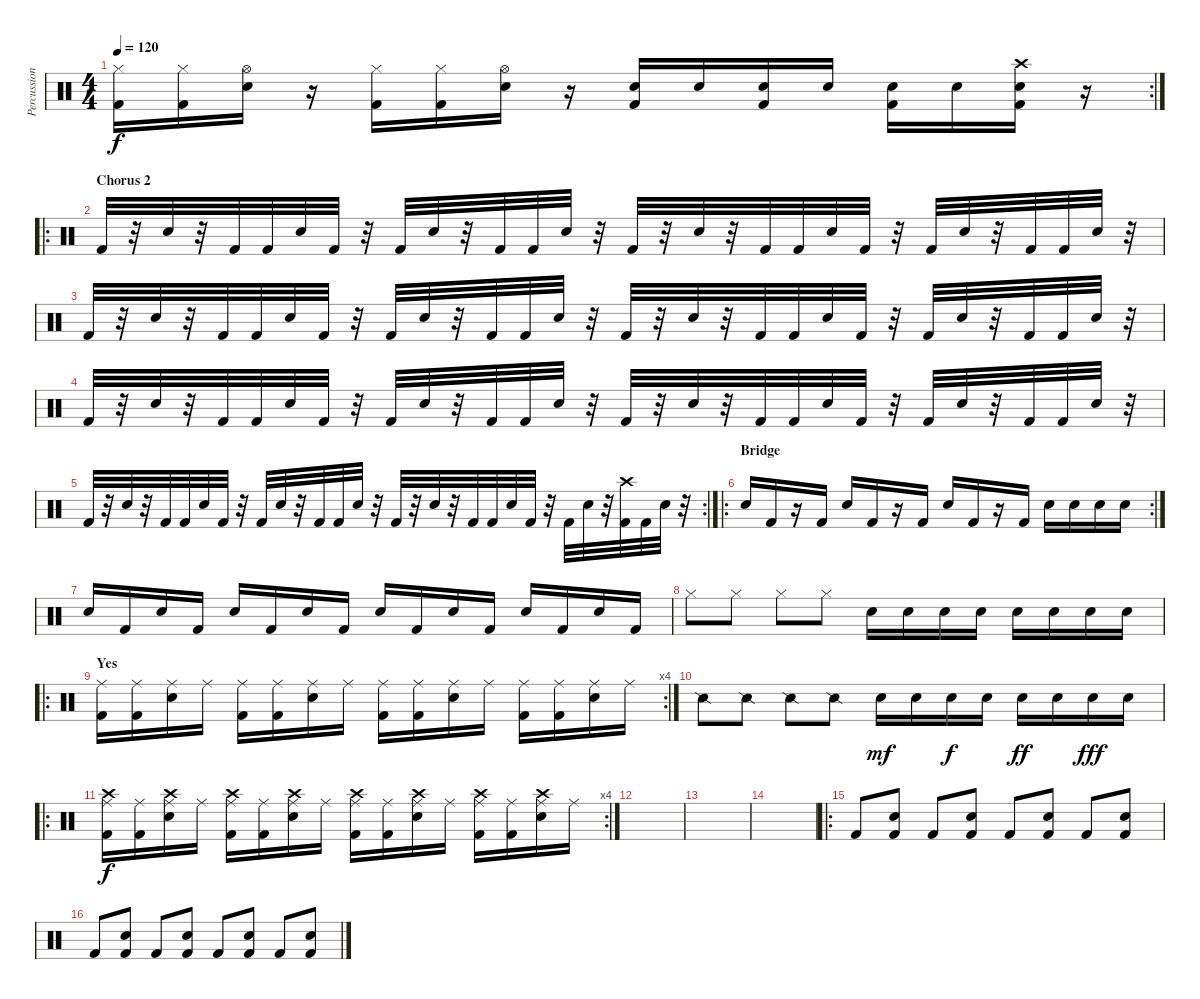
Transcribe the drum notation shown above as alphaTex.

\track ("Percussion" "Percussion") {instrument percussion}
\staff {score}
\articulation defaults
\rc 2
\ts (4 4)
\tempo 120
\clef neutral
\ks c
("Hi-Hat (closed)" "Kick (hit) 2").16{dy f} ("Hi-Hat (closed)" "Kick (hit) 2").16 ("Hi-Hat (open)" "Electric Snare (hit)").16 r.16 ("Hi-Hat (closed)" "Kick (hit) 2").16 ("Hi-Hat (closed)" "Kick (hit) 2").16 ("Hi-Hat (open)" "Electric Snare (hit)").16 r.16 ("Electric Snare (hit)" "Kick (hit) 2").16 "Electric Snare (hit)".16 ("Electric Snare (hit)" "Kick (hit) 2").16 "Electric Snare (hit)".16 ("Electric Snare (hit)" "Kick (hit) 2").16 "Electric Snare (hit)".16 ("Crash high (hit)" "Electric Snare (hit)" "Kick (hit) 2").16 r.16 |
\ro
\section ("" "Chorus 2")
"Kick (hit) 2".32 r.32 "Electric Snare (hit)".32 r.32 "Kick (hit) 2".32 "Kick (hit) 2".32 "Electric Snare (hit)".32 "Kick (hit) 2".32 r.32 "Kick (hit) 2".32 "Electric Snare (hit)".32 r.32 "Kick (hit) 2".32 "Kick (hit) 2".32 "Electric Snare (hit)".32 r.32 "Kick (hit) 2".32 r.32 "Electric Snare (hit)".32 r.32 "Kick (hit) 2".32 "Kick (hit) 2".32 "Electric Snare (hit)".32 "Kick (hit) 2".32 r.32 "Kick (hit) 2".32 "Electric Snare (hit)".32 r.32 "Kick (hit) 2".32 "Kick (hit) 2".32 "Electric Snare (hit)".32 r.32 |
"Kick (hit) 2".32 r.32 "Electric Snare (hit)".32 r.32 "Kick (hit) 2".32 "Kick (hit) 2".32 "Electric Snare (hit)".32 "Kick (hit) 2".32 r.32 "Kick (hit) 2".32 "Electric Snare (hit)".32 r.32 "Kick (hit) 2".32 "Kick (hit) 2".32 "Electric Snare (hit)".32 r.32 "Kick (hit) 2".32 r.32 "Electric Snare (hit)".32 r.32 "Kick (hit) 2".32 "Kick (hit) 2".32 "Electric Snare (hit)".32 "Kick (hit) 2".32 r.32 "Kick (hit) 2".32 "Electric Snare (hit)".32 r.32 "Kick (hit) 2".32 "Kick (hit) 2".32 "Electric Snare (hit)".32 r.32 |
"Kick (hit) 2".32 r.32 "Electric Snare (hit)".32 r.32 "Kick (hit) 2".32 "Kick (hit) 2".32 "Electric Snare (hit)".32 "Kick (hit) 2".32 r.32 "Kick (hit) 2".32 "Electric Snare (hit)".32 r.32 "Kick (hit) 2".32 "Kick (hit) 2".32 "Electric Snare (hit)".32 r.32 "Kick (hit) 2".32 r.32 "Electric Snare (hit)".32 r.32 "Kick (hit) 2".32 "Kick (hit) 2".32 "Electric Snare (hit)".32 "Kick (hit) 2".32 r.32 "Kick (hit) 2".32 "Electric Snare (hit)".32 r.32 "Kick (hit) 2".32 "Kick (hit) 2".32 "Electric Snare (hit)".32 r.32 |
\rc 2 "Kick (hit) 2".32
r.32 "Electric Snare (hit)".32 r.32 "Kick (hit) 2".32 "Kick (hit) 2".32 "Electric Snare (hit)".32 "Kick (hit) 2".32 r.32 "Kick (hit) 2".32 "Electric Snare (hit)".32 r.32 "Kick (hit) 2".32 "Kick (hit) 2".32 "Electric Snare (hit)".32 r.32 "Kick (hit) 2".32 r.32 "Electric Snare (hit)".32 r.32 "Kick (hit) 2".32 "Kick (hit) 2".32 "Electric Snare (hit)".32 "Kick (hit) 2".32 r.32 "Kick (hit) 2".32 "Electric Snare (hit)".32 r.32 ("Crash high (hit)" "Kick (hit) 2").32 "Kick (hit) 2".32 "Electric Snare (hit)".32 r.32 |
\ro
\rc 2
\section ("" "Bridge")
"Electric Snare (hit)".16 "Kick (hit) 2".16 r.16 "Kick (hit) 2".16 "Electric Snare (hit)".16 "Kick (hit) 2".16 r.16 "Kick (hit) 2".16 "Electric Snare (hit)".16 "Kick (hit) 2".16 r.16 "Kick (hit) 2".16 "Electric Snare (hit)".16 "Electric Snare (hit)".16 "Electric Snare (hit)".16 "Electric Snare (hit)".16 |
"Electric Snare (hit)".16 "Kick (hit) 2".16 "Electric Snare (hit)".16 "Kick (hit) 2".16 "Electric Snare (hit)".16 "Kick (hit) 2".16 "Electric Snare (hit)".16 "Kick (hit) 2".16 "Electric Snare (hit)".16 "Kick (hit) 2".16 "Electric Snare (hit)".16 "Kick (hit) 2".16 "Electric Snare (hit)".16 "Kick (hit) 2".16 "Electric Snare (hit)".16 "Kick (hit) 2".16 |
"Hi-Hat (closed)".8 "Hi-Hat (closed)".8 "Hi-Hat (closed)".8 "Hi-Hat (closed)".8 "Electric Snare (hit)".16 "Electric Snare (hit)".16 "Electric Snare (hit)".16 "Electric Snare (hit)".16 "Electric Snare (hit)".16 "Electric Snare (hit)".16 "Electric Snare (hit)".16 "Electric Snare (hit)".16 |
\ro
\rc 4
\section ("" "Yes")
("Ride (middle)" "Kick (hit) 2").16 ("Ride (middle)" "Kick (hit) 2").16 ("Ride (middle)" "Electric Snare (hit)").16 "Ride (middle)".16 ("Ride (middle)" "Kick (hit) 2").16 ("Ride (middle)" "Kick (hit) 2").16 ("Ride (middle)" "Electric Snare (hit)").16 "Ride (middle)".16 ("Ride (middle)" "Kick (hit) 2").16 ("Ride (middle)" "Kick (hit) 2").16 ("Ride (middle)" "Electric Snare (hit)").16 "Ride (middle)".16 ("Ride (middle)" "Kick (hit) 2").16 ("Ride (middle)" "Kick (hit) 2").16 ("Ride (middle)" "Electric Snare (hit)").16 "Ride (middle)".16 |
"Snare (side stick) 2".8 "Snare (side stick) 2".8 "Snare (side stick) 2".8 "Snare (side stick) 2".8 "Electric Snare (hit)".16{dy mf} "Electric Snare (hit)".16 "Electric Snare (hit)".16{dy f} "Electric Snare (hit)".16 "Electric Snare (hit)".16{dy ff} "Electric Snare (hit)".16 "Electric Snare (hit)".16{dy fff} "Electric Snare (hit)".16 |
\ro
\rc 4
("Ride (middle)" "Crash high (hit)" "Kick (hit) 2").16{dy f} ("Ride (middle)" "Kick (hit) 2").16 ("Ride (middle)" "Crash high (hit)" "Electric Snare (hit)").16 "Ride (middle)".16 ("Ride (middle)" "Crash high (hit)" "Kick (hit) 2").16 ("Ride (middle)" "Kick (hit) 2").16 ("Ride (middle)" "Crash high (hit)" "Electric Snare (hit)").16 "Ride (middle)".16 ("Ride (middle)" "Crash high (hit)" "Kick (hit) 2").16 ("Ride (middle)" "Kick (hit) 2").16 ("Ride (middle)" "Crash high (hit)" "Electric Snare (hit)").16 "Ride (middle)".16 ("Ride (middle)" "Crash high (hit)" "Kick (hit) 2").16 ("Ride (middle)" "Kick (hit) 2").16 ("Ride (middle)" "Crash high (hit)" "Electric Snare (hit)").16 "Ride (middle)".16 |
|
|
|
\ro "Kick (hit) 2".8
("Snare (hit) 2" "Kick (hit) 2").8 "Kick (hit) 2".8 ("Snare (hit) 2" "Kick (hit) 2").8 "Kick (hit) 2".8 ("Snare (hit) 2" "Kick (hit) 2").8 "Kick (hit) 2".8 ("Snare (hit) 2" "Kick (hit) 2").8 |
"Kick (hit) 2".8 ("Snare (hit) 2" "Kick (hit) 2").8 "Kick (hit) 2".8 ("Snare (hit) 2" "Kick (hit) 2").8 "Kick (hit) 2".8 ("Snare (hit) 2" "Kick (hit) 2").8 "Kick (hit) 2".8 ("Snare (hit) 2" "Kick (hit) 2").8
